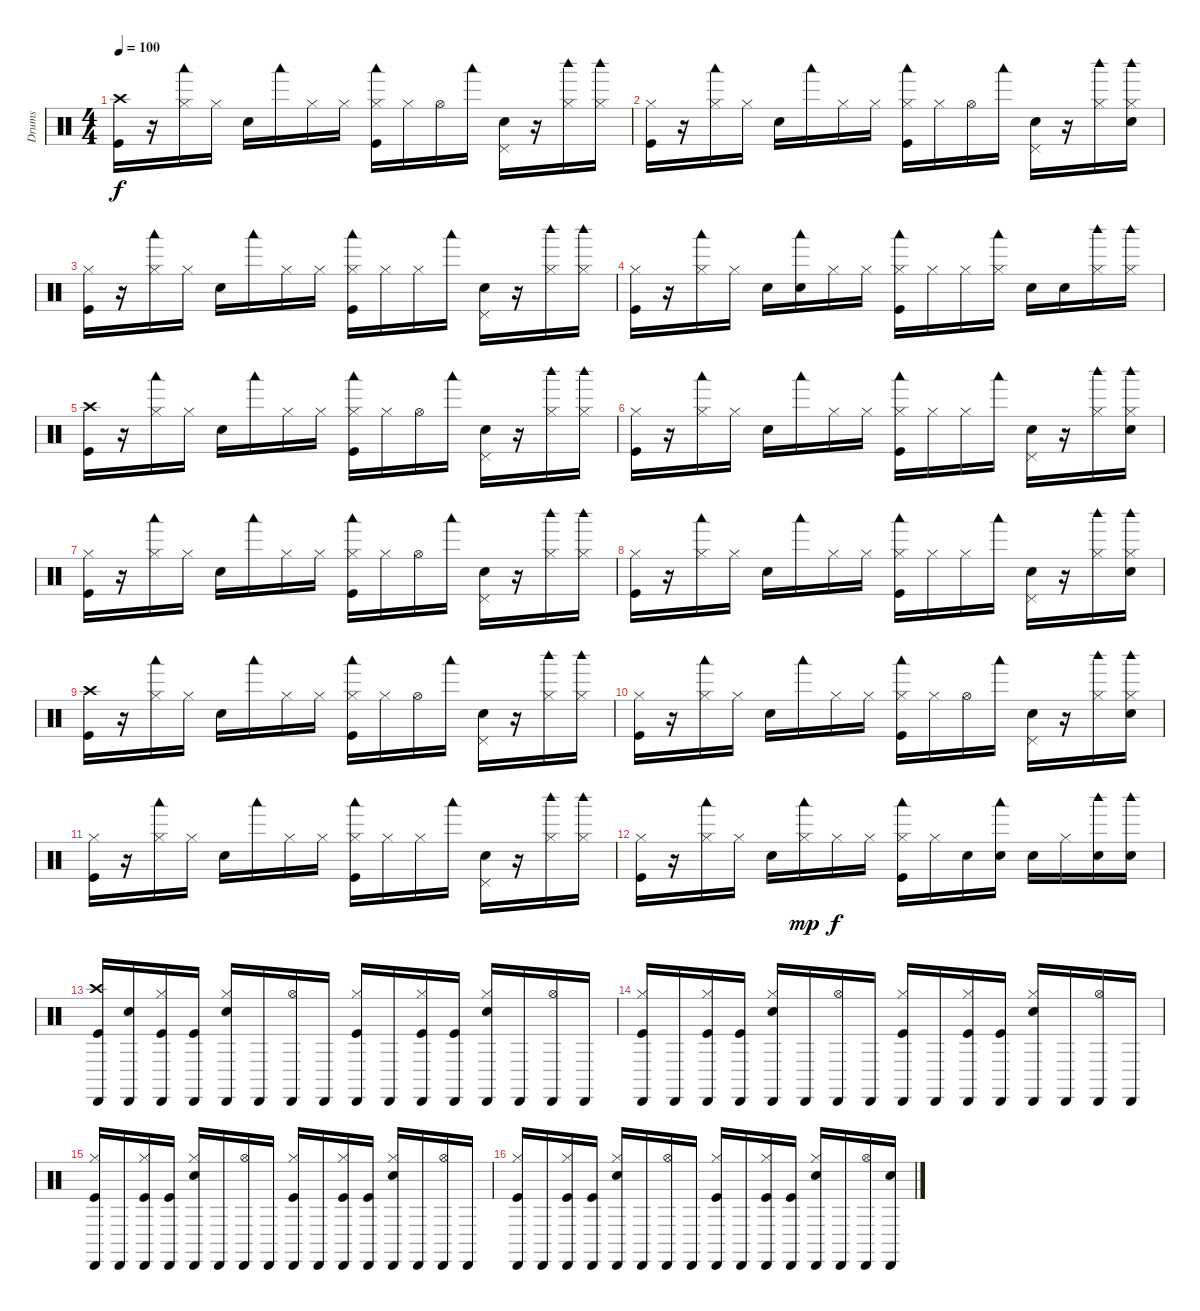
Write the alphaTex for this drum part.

\track ("Drums" "Drums") {instrument percussion}
\staff {score}
\articulation defaults
\ts (4 4)
\tempo 100
\clef neutral
\ks c
("Kick (hit)" "Crash high (hit)").16{dy f} r.16 ("Hi-Hat (closed)" "Woodblock low (hit)").16 "Hi-Hat (closed)".16 "Snare (hit) 2".16 "Woodblock low (hit)".16 "Hi-Hat (closed)".16 "Hi-Hat (closed)".16 ("Kick (hit)" "Hi-Hat (closed)" "Woodblock low (hit)").16 "Hi-Hat (closed)".16 "Hi-Hat (open)".16 "Woodblock low (hit)".16 ("Snare (hit) 2" "Pedal Hi-Hat (hit)").16 r.16 ("Hi-Hat (closed)" "Woodblock high (hit)").16 ("Hi-Hat (closed)" "Woodblock high (hit)").16 |
("Kick (hit)" "Hi-Hat (closed)").16 r.16 ("Hi-Hat (closed)" "Woodblock low (hit)").16 "Hi-Hat (closed)".16 "Snare (hit) 2".16 "Woodblock low (hit)".16 "Hi-Hat (closed)".16 "Hi-Hat (closed)".16 ("Kick (hit)" "Hi-Hat (closed)" "Woodblock low (hit)").16 "Hi-Hat (closed)".16 "Hi-Hat (open)".16 "Woodblock low (hit)".16 ("Snare (hit) 2" "Pedal Hi-Hat (hit)").16 r.16 ("Hi-Hat (closed)" "Woodblock high (hit)").16 ("Snare (hit) 2" "Hi-Hat (closed)" "Woodblock high (hit)").16 |
("Kick (hit)" "Hi-Hat (closed)").16 r.16 ("Hi-Hat (closed)" "Woodblock low (hit)").16 "Hi-Hat (closed)".16 "Snare (hit) 2".16 "Woodblock low (hit)".16 "Hi-Hat (closed)".16 "Hi-Hat (closed)".16 ("Kick (hit)" "Hi-Hat (closed)" "Woodblock low (hit)").16 "Hi-Hat (closed)".16 "Hi-Hat (closed)".16 "Woodblock low (hit)".16 ("Snare (hit) 2" "Pedal Hi-Hat (hit)").16 r.16 ("Hi-Hat (closed)" "Woodblock high (hit)").16 ("Hi-Hat (closed)" "Woodblock high (hit)").16 |
("Kick (hit)" "Hi-Hat (closed)").16 r.16 ("Hi-Hat (closed)" "Woodblock low (hit)").16 "Hi-Hat (closed)".16 "Snare (hit) 2".16 ("Snare (hit) 2" "Woodblock low (hit)").16 "Hi-Hat (closed)".16 "Hi-Hat (closed)".16 ("Kick (hit)" "Hi-Hat (closed)" "Woodblock low (hit)").16 "Hi-Hat (closed)".16 "Hi-Hat (closed)".16 ("Hi-Hat (closed)" "Woodblock low (hit)").16 "Snare (hit) 2".16 "Snare (hit) 2".16 ("Hi-Hat (closed)" "Woodblock high (hit)").16 ("Hi-Hat (closed)" "Woodblock high (hit)").16 |
("Kick (hit)" "Crash high (hit)").16 r.16 ("Hi-Hat (closed)" "Woodblock low (hit)").16 "Hi-Hat (closed)".16 "Snare (hit) 2".16 "Woodblock low (hit)".16 "Hi-Hat (closed)".16 "Hi-Hat (closed)".16 ("Kick (hit)" "Hi-Hat (closed)" "Woodblock low (hit)").16 "Hi-Hat (closed)".16 "Hi-Hat (open)".16 "Woodblock low (hit)".16 ("Snare (hit) 2" "Pedal Hi-Hat (hit)").16 r.16 ("Hi-Hat (closed)" "Woodblock high (hit)").16 ("Hi-Hat (closed)" "Woodblock high (hit)").16 |
("Kick (hit)" "Hi-Hat (closed)").16 r.16 ("Hi-Hat (closed)" "Woodblock low (hit)").16 "Hi-Hat (closed)".16 "Snare (hit) 2".16 "Woodblock low (hit)".16 "Hi-Hat (closed)".16 "Hi-Hat (closed)".16 ("Kick (hit)" "Hi-Hat (closed)" "Woodblock low (hit)").16 "Hi-Hat (closed)".16 "Hi-Hat (closed)".16 "Woodblock low (hit)".16 ("Snare (hit) 2" "Pedal Hi-Hat (hit)").16 r.16 ("Hi-Hat (closed)" "Woodblock high (hit)").16 ("Snare (hit) 2" "Hi-Hat (closed)" "Woodblock high (hit)").16 |
("Kick (hit)" "Hi-Hat (closed)").16 r.16 ("Hi-Hat (closed)" "Woodblock low (hit)").16 "Hi-Hat (closed)".16 "Snare (hit) 2".16 "Woodblock low (hit)".16 "Hi-Hat (closed)".16 "Hi-Hat (closed)".16 ("Kick (hit)" "Hi-Hat (closed)" "Woodblock low (hit)").16 "Hi-Hat (closed)".16 "Hi-Hat (open)".16 "Woodblock low (hit)".16 ("Snare (hit) 2" "Pedal Hi-Hat (hit)").16 r.16 ("Hi-Hat (closed)" "Woodblock high (hit)").16 ("Hi-Hat (closed)" "Woodblock high (hit)").16 |
("Kick (hit)" "Hi-Hat (closed)").16 r.16 ("Hi-Hat (closed)" "Woodblock low (hit)").16 "Hi-Hat (closed)".16 "Snare (hit) 2".16 "Woodblock low (hit)".16 "Hi-Hat (closed)".16 "Hi-Hat (closed)".16 ("Kick (hit)" "Hi-Hat (closed)" "Woodblock low (hit)").16 "Hi-Hat (closed)".16 "Hi-Hat (closed)".16 "Woodblock low (hit)".16 ("Snare (hit) 2" "Pedal Hi-Hat (hit)").16 r.16 ("Hi-Hat (closed)" "Woodblock high (hit)").16 ("Snare (hit) 2" "Hi-Hat (closed)" "Woodblock high (hit)").16 |
("Kick (hit)" "Crash high (hit)").16 r.16 ("Hi-Hat (closed)" "Woodblock low (hit)").16 "Hi-Hat (closed)".16 "Snare (hit) 2".16 "Woodblock low (hit)".16 "Hi-Hat (closed)".16 "Hi-Hat (closed)".16 ("Kick (hit)" "Hi-Hat (closed)" "Woodblock low (hit)").16 "Hi-Hat (closed)".16 "Hi-Hat (open)".16 "Woodblock low (hit)".16 ("Snare (hit) 2" "Pedal Hi-Hat (hit)").16 r.16 ("Hi-Hat (closed)" "Woodblock high (hit)").16 ("Hi-Hat (closed)" "Woodblock high (hit)").16 |
("Kick (hit)" "Hi-Hat (closed)").16 r.16 ("Hi-Hat (closed)" "Woodblock low (hit)").16 "Hi-Hat (closed)".16 "Snare (hit) 2".16 "Woodblock low (hit)".16 "Hi-Hat (closed)".16 "Hi-Hat (closed)".16 ("Kick (hit)" "Hi-Hat (closed)" "Woodblock low (hit)").16 "Hi-Hat (closed)".16 "Hi-Hat (open)".16 "Woodblock low (hit)".16 ("Snare (hit) 2" "Pedal Hi-Hat (hit)").16 r.16 ("Hi-Hat (closed)" "Woodblock high (hit)").16 ("Snare (hit) 2" "Hi-Hat (closed)" "Woodblock high (hit)").16 |
("Kick (hit)" "Hi-Hat (closed)").16 r.16 ("Hi-Hat (closed)" "Woodblock low (hit)").16 "Hi-Hat (closed)".16 "Snare (hit) 2".16 "Woodblock low (hit)".16 "Hi-Hat (closed)".16 "Hi-Hat (closed)".16 ("Kick (hit)" "Hi-Hat (closed)" "Woodblock low (hit)").16 "Hi-Hat (closed)".16 "Hi-Hat (closed)".16 "Woodblock low (hit)".16 ("Snare (hit) 2" "Pedal Hi-Hat (hit)").16 r.16 ("Hi-Hat (closed)" "Woodblock high (hit)").16 ("Hi-Hat (closed)" "Woodblock high (hit)").16 |
("Kick (hit)" "Hi-Hat (closed)").16 r.16 ("Hi-Hat (closed)" "Woodblock low (hit)").16 "Hi-Hat (closed)".16 "Snare (hit) 2".16 ("Hi-Hat (closed)" "Woodblock low (hit)").16{dy mp} "Hi-Hat (closed)".16{dy f} "Hi-Hat (closed)".16 ("Kick (hit)" "Hi-Hat (closed)" "Woodblock low (hit)").16 "Hi-Hat (closed)".16 "Snare (hit) 2".16 ("Snare (hit) 2" "Woodblock low (hit)").16 "Snare (hit) 2".16 "Hi-Hat (closed)".16 ("Snare (hit) 2" "Woodblock high (hit)").16 ("Snare (hit) 2" "Woodblock high (hit)").16 |
("Crash high (hit)" "Kick (hit)" "Cabasa (hit)").16 ("Snare (hit) 2" "Cabasa (hit)").16 ("Hi-Hat (closed)" "Kick (hit)" "Cabasa (hit)").16 ("Kick (hit)" "Cabasa (hit)").16 ("Hi-Hat (closed)" "Snare (hit) 2" "Cabasa (hit)").16 "Cabasa (hit)".16 ("Hi-Hat (open)" "Cabasa (hit)").16 "Cabasa (hit)".16 ("Hi-Hat (closed)" "Kick (hit)" "Cabasa (hit)").16 "Cabasa (hit)".16 ("Hi-Hat (closed)" "Kick (hit)" "Cabasa (hit)").16 ("Kick (hit)" "Cabasa (hit)").16 ("Hi-Hat (closed)" "Snare (hit) 2" "Cabasa (hit)").16 "Cabasa (hit)".16 ("Hi-Hat (open)" "Cabasa (hit)").16 "Cabasa (hit)".16 |
("Hi-Hat (closed)" "Kick (hit)" "Cabasa (hit)").16 "Cabasa (hit)".16 ("Hi-Hat (closed)" "Kick (hit)" "Cabasa (hit)").16 ("Kick (hit)" "Cabasa (hit)").16 ("Hi-Hat (closed)" "Snare (hit) 2" "Cabasa (hit)").16 "Cabasa (hit)".16 ("Hi-Hat (open)" "Cabasa (hit)").16 "Cabasa (hit)".16 ("Hi-Hat (closed)" "Kick (hit)" "Cabasa (hit)").16 "Cabasa (hit)".16 ("Hi-Hat (closed)" "Kick (hit)" "Cabasa (hit)").16 ("Kick (hit)" "Cabasa (hit)").16 ("Hi-Hat (closed)" "Snare (hit) 2" "Cabasa (hit)").16 "Cabasa (hit)".16 ("Hi-Hat (open)" "Cabasa (hit)").16 "Cabasa (hit)".16 |
("Hi-Hat (closed)" "Kick (hit)" "Cabasa (hit)").16 "Cabasa (hit)".16 ("Hi-Hat (closed)" "Kick (hit)" "Cabasa (hit)").16 ("Kick (hit)" "Cabasa (hit)").16 ("Hi-Hat (closed)" "Snare (hit) 2" "Cabasa (hit)").16 "Cabasa (hit)".16 ("Hi-Hat (open)" "Cabasa (hit)").16 "Cabasa (hit)".16 ("Hi-Hat (closed)" "Kick (hit)" "Cabasa (hit)").16 "Cabasa (hit)".16 ("Hi-Hat (closed)" "Kick (hit)" "Cabasa (hit)").16 ("Kick (hit)" "Cabasa (hit)").16 ("Hi-Hat (closed)" "Snare (hit) 2" "Cabasa (hit)").16 "Cabasa (hit)".16 ("Hi-Hat (open)" "Cabasa (hit)").16 "Cabasa (hit)".16 |
("Hi-Hat (closed)" "Kick (hit)" "Cabasa (hit)").16 "Cabasa (hit)".16 ("Hi-Hat (closed)" "Kick (hit)" "Cabasa (hit)").16 ("Kick (hit)" "Cabasa (hit)").16 ("Hi-Hat (closed)" "Snare (hit) 2" "Cabasa (hit)").16 "Cabasa (hit)".16 ("Hi-Hat (open)" "Cabasa (hit)").16 "Cabasa (hit)".16 ("Hi-Hat (closed)" "Kick (hit)" "Cabasa (hit)").16 "Cabasa (hit)".16 ("Hi-Hat (closed)" "Kick (hit)" "Cabasa (hit)").16 ("Kick (hit)" "Cabasa (hit)").16 ("Hi-Hat (closed)" "Snare (hit) 2" "Cabasa (hit)").16 "Cabasa (hit)".16 ("Hi-Hat (open)" "Cabasa (hit)").16 ("Snare (hit) 2" "Cabasa (hit)").16
